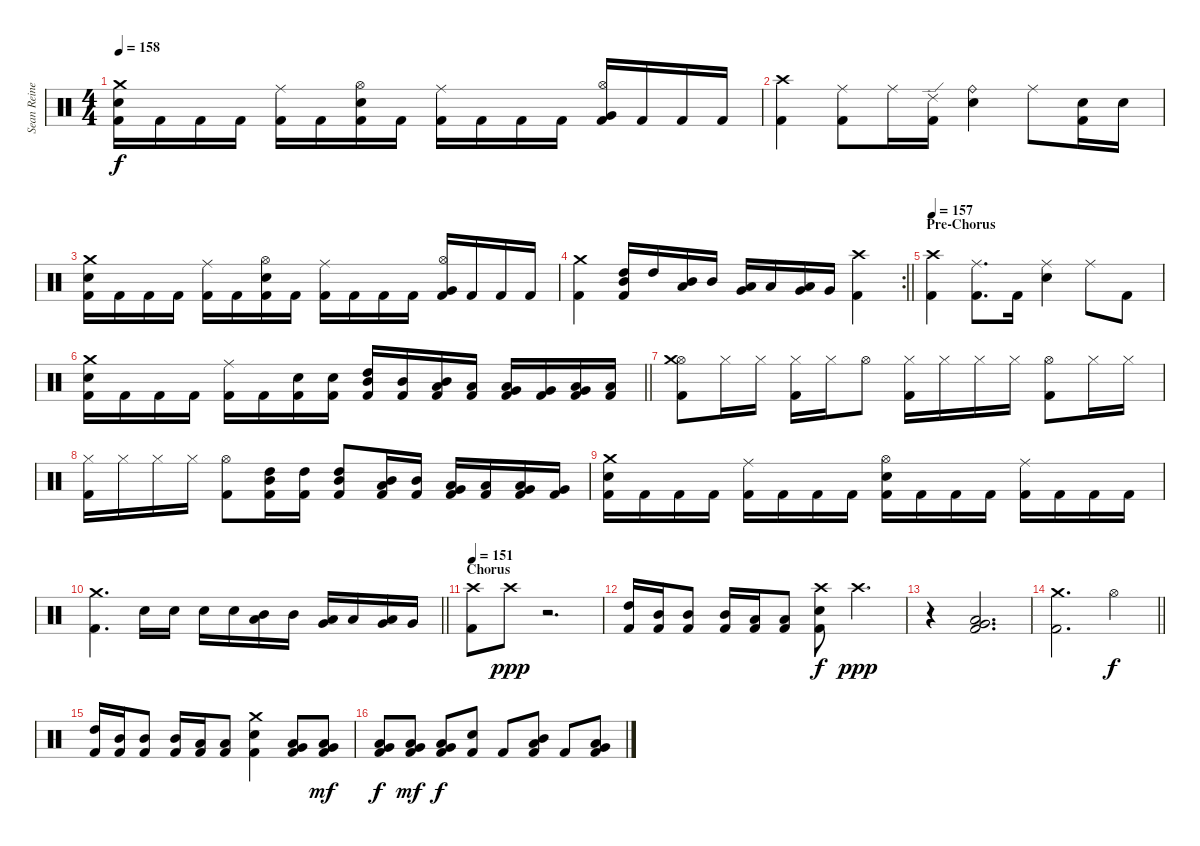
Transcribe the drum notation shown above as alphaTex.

\track ("Sean Reinert" "Sean Reine") {instrument percussion}
\staff {score}
\articulation defaults
\ts (4 4)
\tempo 158
\clef neutral
\ks c
("Crash medium (hit)" "Snare (hit) 2" "Kick (hit) 2").16{dy f} "Kick (hit) 2".16 "Kick (hit) 2".16 "Kick (hit) 2".16 ("Ride (middle)" "Kick (hit) 2").16 "Kick (hit) 2".16 ("Hi-Hat (open)" "Snare (hit) 2" "Kick (hit) 2").16 "Kick (hit) 2".16 ("Ride (middle)" "Kick (hit) 2").16 "Kick (hit) 2".16 "Kick (hit) 2".16 "Kick (hit) 2".16 ("Hi-Hat (open)" "Very Low Tom (hit)" "Kick (hit) 2").16 "Kick (hit) 2".16 "Kick (hit) 2".16 "Kick (hit) 2".16 |
("Crash high (hit)" "Kick (hit) 2").4 ("Ride (middle)" "Kick (hit) 2").8 "Ride (middle)".16 ("Ride (edge) 2" "Kick (hit) 2").16 ("Ride (bell)" "Snare (hit) 2").4 "Ride (middle)".8 ("Snare (hit) 2" "Kick (hit) 2").16 "Snare (hit) 2".16 |
("Crash medium (hit)" "Snare (hit) 2" "Kick (hit) 2").16 "Kick (hit) 2".16 "Kick (hit) 2".16 "Kick (hit) 2".16 ("Ride (middle)" "Kick (hit) 2").16 "Kick (hit) 2".16 ("Hi-Hat (open)" "Snare (hit) 2" "Kick (hit) 2").16 "Kick (hit) 2".16 ("Ride (middle)" "Kick (hit) 2").16 "Kick (hit) 2".16 "Kick (hit) 2".16 "Kick (hit) 2".16 ("Hi-Hat (open)" "Very Low Tom (hit)" "Kick (hit) 2").16 "Kick (hit) 2".16 "Kick (hit) 2".16 "Kick (hit) 2".16 |
\rc 2
\barLineRight lightlight
("Crash medium (hit)" "Kick (hit) 2").4 ("High Tom (hit)" "Mid Tom (hit)" "Kick (hit) 2").16 "High Tom (hit)".16 ("Low Tom (hit)" "Mid Tom (hit)").16 "Mid Tom (hit)".16 ("Very Low Tom (hit)" "Low Tom (hit)").16 "Low Tom (hit)".16 ("Low Floor Tom (hit)" "Very Low Tom (hit)").16 "Very Low Tom (hit)".16 ("Crash high (hit)" "Kick (hit) 2").4 |
\section ("" "Pre-Chorus")
\tempo 157
("Crash high (hit)" "Kick (hit) 2").4 ("Ride (middle)" "Kick (hit) 2").8{d} "Kick (hit) 2".16 ("Ride (middle)" "Snare (hit) 2").4 "Ride (middle)".8 "Kick (hit) 2".8 |
\barLineRight lightlight
("Crash medium (hit)" "Snare (hit) 2" "Kick (hit) 2").16 "Kick (hit) 2".16 "Kick (hit) 2".16 "Kick (hit) 2".16 ("Ride (middle)" "Kick (hit) 2").16 "Kick (hit) 2".16 ("Snare (hit) 2" "Kick (hit) 2").16 ("Snare (hit) 2" "Kick (hit) 2").16 ("High Tom (hit)" "Mid Tom (hit)" "Kick (hit) 2").16 ("Mid Tom (hit)" "Kick (hit) 2").16 ("Mid Tom (hit)" "Low Tom (hit)" "Kick (hit) 2").16 ("Low Tom (hit)" "Kick (hit) 2").16 ("Low Tom (hit)" "Very Low Tom (hit)" "Kick (hit) 2").16 ("Very Low Tom (hit)" "Kick (hit) 2").16 ("Very Low Tom (hit)" "Low Floor Tom (hit)" "Kick (hit) 2").16 ("Low Floor Tom (hit)" "Kick (hit) 2").16 |
("Hi-Hat (open)" "Crash medium (hit)" "Kick (hit) 2").8 "Hi-Hat (closed)".16 "Hi-Hat (closed)".16 ("Hi-Hat (closed)" "Kick (hit) 2").16 "Hi-Hat (closed)".16 "Hi-Hat (open)".8 ("Hi-Hat (closed)" "Kick (hit) 2").16 "Hi-Hat (closed)".16 "Hi-Hat (closed)".16 "Hi-Hat (closed)".16 ("Hi-Hat (open)" "Kick (hit) 2").8 "Hi-Hat (closed)".16 "Hi-Hat (closed)".16 |
("Hi-Hat (closed)" "Kick (hit) 2").16 "Hi-Hat (closed)".16 "Hi-Hat (closed)".16 "Hi-Hat (closed)".16 ("Hi-Hat (open)" "Kick (hit) 2").8 ("Mid Tom (hit)" "High Tom (hit)" "Kick (hit) 2").16 ("High Tom (hit)" "Kick (hit) 2").16 ("Mid Tom (hit)" "High Tom (hit)" "Kick (hit) 2").8 ("Low Tom (hit)" "Mid Tom (hit)" "Kick (hit) 2").16 ("Mid Tom (hit)" "Kick (hit) 2").16 ("Very Low Tom (hit)" "Low Tom (hit)" "Kick (hit) 2").16 ("Low Tom (hit)" "Kick (hit) 2").16 ("Low Floor Tom (hit)" "Very Low Tom (hit)" "Kick (hit) 2").16 ("Very Low Tom (hit)" "Kick (hit) 2").16 |
("Crash medium (hit)" "Snare (hit) 2" "Kick (hit) 2").16 "Kick (hit) 2".16 "Kick (hit) 2".16 "Kick (hit) 2".16 ("Ride (middle)" "Kick (hit) 2").16 "Kick (hit) 2".16 "Kick (hit) 2".16 "Kick (hit) 2".16 ("Hi-Hat (open)" "Snare (hit) 2" "Kick (hit) 2").16 "Kick (hit) 2".16 "Kick (hit) 2".16 "Kick (hit) 2".16 ("Ride (middle)" "Kick (hit) 2").16 "Kick (hit) 2".16 "Kick (hit) 2".16 "Kick (hit) 2".16 |
\barLineRight lightlight
("Crash medium (hit)" "Kick (hit) 2").4{d} "Snare (hit) 2".16 "Snare (hit) 2".16 "Snare (hit) 2".16 "Snare (hit) 2".16 ("Low Tom (hit)" "Mid Tom (hit)").16 "Mid Tom (hit)".16 ("Very Low Tom (hit)" "Low Tom (hit)").16 "Low Tom (hit)".16 ("Low Floor Tom (hit)" "Very Low Tom (hit)").16 "Very Low Tom (hit)".16 |
\section ("" "Chorus")
\tempo 151
("Crash high (hit)" "Kick (hit) 2").8 "Crash high (hit)".8{dy ppp} r.2{d} |
("High Tom (hit)" "Kick (hit) 2").16 ("Mid Tom (hit)" "Kick (hit) 2").16 ("Mid Tom (hit)" "Kick (hit) 2").8 ("Mid Tom (hit)" "Kick (hit) 2").16 ("Low Tom (hit)" "Kick (hit) 2").16 ("Low Tom (hit)" "Kick (hit) 2").8 ("Crash high (hit)" "Snare (hit) 2" "Kick (hit) 2").8{dy f} "Crash high (hit)".4{d dy ppp} |
r.4 ("Low Floor Tom (hit)" "Very Low Tom (hit)" "Kick (hit) 2").2{d} |
\barLineRight lightlight
("Crash medium (hit)" "Kick (hit) 2").2{d} "Hi-Hat (open)".4{dy f} |
("High Tom (hit)" "Kick (hit) 2").16 ("Mid Tom (hit)" "Kick (hit) 2").16 ("Mid Tom (hit)" "Kick (hit) 2").8 ("Mid Tom (hit)" "Kick (hit) 2").16 ("Low Tom (hit)" "Kick (hit) 2").16 ("Low Tom (hit)" "Kick (hit) 2").8 ("Crash medium (hit)" "Snare (hit) 2" "Kick (hit) 2").4 ("Low Floor Tom (hit)" "Very Low Tom (hit)" "Kick (hit) 2").8 ("Low Floor Tom (hit)" "Very Low Tom (hit)" "Kick (hit) 2").8{dy mf} |
("Low Floor Tom (hit)" "Very Low Tom (hit)" "Kick (hit) 2").8{dy f} ("Low Floor Tom (hit)" "Very Low Tom (hit)" "Kick (hit) 2").8{dy mf} ("Low Floor Tom (hit)" "Very Low Tom (hit)" "Kick (hit) 2").8{dy f} ("Snare (hit) 2" "Kick (hit) 2").8 "Kick (hit) 2".8 ("Low Tom (hit)" "Mid Tom (hit)" "Kick (hit) 2").8 "Kick (hit) 2".8 ("Very Low Tom (hit)" "Low Tom (hit)" "Kick (hit) 2").8
